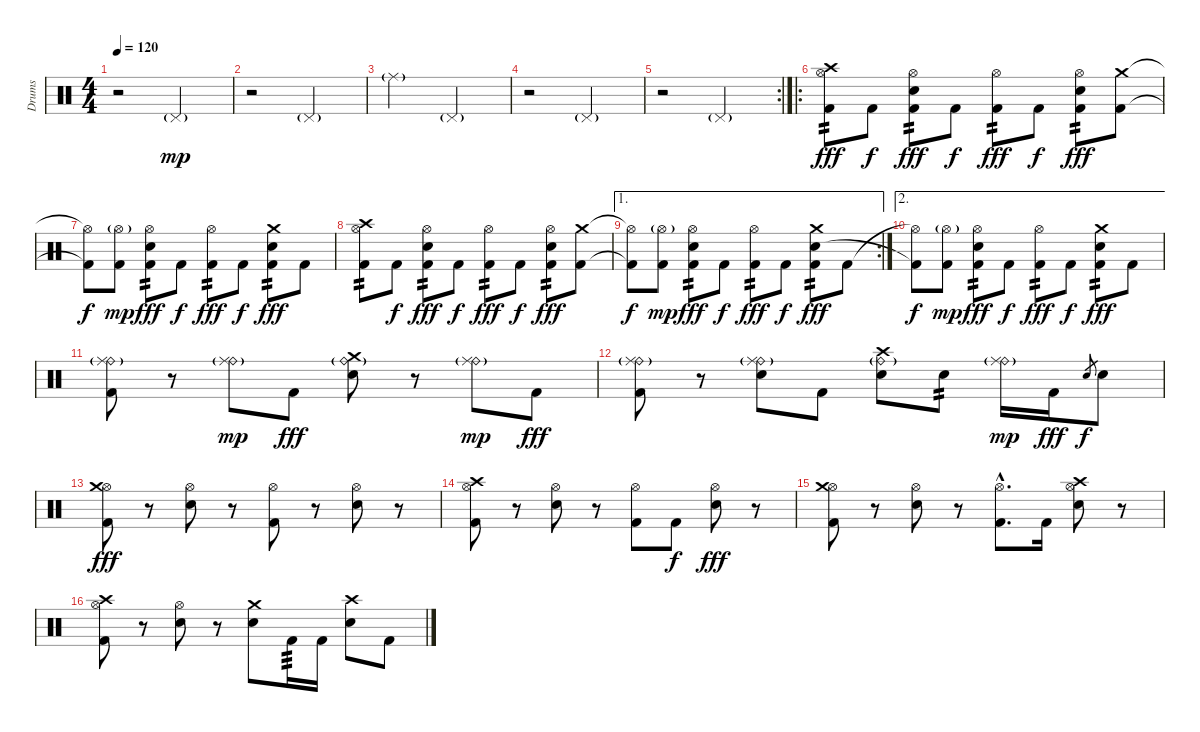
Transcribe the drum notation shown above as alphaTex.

\track ("Drums" "Drums") {instrument percussion}
\staff {score}
\articulation defaults
\ts (4 4)
\tempo 120
\clef neutral
\ks c
r.2{dy mp} "Pedal Hi-Hat (hit)"{g}.2 |
r.2{volume 13} "Pedal Hi-Hat (hit)"{g}.2 |
"Ride (middle)"{g}.2 "Pedal Hi-Hat (hit)"{g}.2 |
r.2 "Pedal Hi-Hat (hit)"{g}.2 |
\rc 2
r.2 "Pedal Hi-Hat (hit)"{g}.2 |
\ro
("Hi-Hat (open)" "Crash high (hit)" "Kick (hit) 2").8{tp 2 dy fff} "Kick (hit) 2".8{dy f} ("Hi-Hat (open)" "Electric Snare (hit)" "Kick (hit) 2").8{tp 2 dy fff} "Kick (hit) 2".8{dy f} ("Hi-Hat (open)" "Kick (hit) 2").8{tp 2 dy fff} "Kick (hit) 2".8{dy f} ("Hi-Hat (open)" "Electric Snare (hit)" "Kick (hit) 2").8{tp 2 dy fff} ("Crash medium (hit)" "Kick (hit) 2").8 |
("Hi-Hat (open)"{t} "Kick (hit) 2"{t}).8{dy f} ("Hi-Hat (open)"{g} "Kick (hit) 2").8{dy mp} ("Hi-Hat (open)" "Electric Snare (hit)" "Kick (hit) 2").8{tp 2 dy fff} "Kick (hit) 2".8{dy f} ("Hi-Hat (open)" "Kick (hit) 2").8{tp 2 dy fff} "Kick (hit) 2".8{dy f} ("Crash medium (hit)" "Electric Snare (hit)" "Kick (hit) 2").8{tp 2 dy fff} "Kick (hit) 2".8 |
("Hi-Hat (open)" "Crash high (hit)" "Kick (hit) 2").8{tp 2} "Kick (hit) 2".8{dy f} ("Hi-Hat (open)" "Electric Snare (hit)" "Kick (hit) 2").8{tp 2 dy fff} "Kick (hit) 2".8{dy f} ("Hi-Hat (open)" "Kick (hit) 2").8{tp 2 dy fff} "Kick (hit) 2".8{dy f} ("Hi-Hat (open)" "Electric Snare (hit)" "Kick (hit) 2").8{tp 2 dy fff} ("Crash medium (hit)" "Kick (hit) 2").8 |
\ae 1
\rc 2
("Hi-Hat (open)"{t} "Kick (hit) 2"{t}).8{dy f} ("Hi-Hat (open)"{g} "Kick (hit) 2").8{dy mp} ("Hi-Hat (open)" "Electric Snare (hit)" "Kick (hit) 2").8{tp 2 dy fff} "Kick (hit) 2".8{dy f} ("Hi-Hat (open)" "Kick (hit) 2").8{tp 2 dy fff} "Kick (hit) 2".8{dy f} ("Crash medium (hit)" "Electric Snare (hit)" "Kick (hit) 2").8{tp 2 dy fff} "Kick (hit) 2".8 |
\ae 2
("Hi-Hat (open)"{t} "Kick (hit) 2"{t}).8{dy f} ("Hi-Hat (open)"{g} "Kick (hit) 2").8{dy mp} ("Hi-Hat (open)" "Electric Snare (hit)" "Kick (hit) 2").8{tp 2 dy fff} "Kick (hit) 2".8{dy f} ("Hi-Hat (open)" "Kick (hit) 2").8{tp 2 dy fff} "Kick (hit) 2".8{dy f} ("Crash medium (hit)" "Electric Snare (hit)" "Kick (hit) 2").8{tp 2 dy fff} "Kick (hit) 2".8 |
("Ride (bell)"{g} "Ride (middle)" "Kick (hit) 2").8 r.8 ("Ride (bell)"{g} "Ride (middle)").8{dy mp} "Kick (hit) 2".8{dy fff} ("Ride (bell)"{g} "Crash medium (hit)" "Electric Snare (hit)").8 r.8 ("Ride (bell)"{g} "Ride (middle)").8{dy mp} "Kick (hit) 2".8{dy fff} |
("Ride (bell)"{g} "Ride (middle)" "Kick (hit) 2").8 r.8 ("Ride (bell)"{g} "Ride (middle)" "Electric Snare (hit)").8 "Kick (hit) 2".8 ("Ride (bell)"{g} "Crash high (hit)" "Electric Snare (hit)").8 "Electric Snare (hit)".8{tp 2} ("Ride (bell)"{g} "Ride (middle)").16{dy mp} "Kick (hit) 2".16{dy fff} "Electric Snare (hit)".8{gr dy f} "Electric Snare (hit)".8 |
("Hi-Hat (open)" "Crash medium (hit)" "Kick (hit) 2").8{dy fff} r.8 ("Hi-Hat (open)" "Electric Snare (hit)").8 r.8 ("Hi-Hat (open)" "Kick (hit) 2").8 r.8 ("Hi-Hat (open)" "Electric Snare (hit)").8 r.8 |
("Hi-Hat (open)" "Crash high (hit)" "Kick (hit) 2").8 r.8 ("Hi-Hat (open)" "Electric Snare (hit)").8 r.8 ("Hi-Hat (open)" "Kick (hit) 2").8 "Kick (hit) 2".8{dy f} ("Hi-Hat (open)" "Electric Snare (hit)").8{dy fff} r.8 |
("Hi-Hat (open)" "Crash medium (hit)" "Kick (hit) 2").8 r.8 ("Hi-Hat (open)" "Electric Snare (hit)").8 r.8 ("Hi-Hat (open)"{hac} "Kick (hit) 2"{hac}).8{d} "Kick (hit) 2".16 ("Hi-Hat (open)" "Crash high (hit)" "Electric Snare (hit)").8 r.8 |
("Hi-Hat (open)" "Crash high (hit)" "Kick (hit) 2").8 r.8 ("Hi-Hat (open)" "Electric Snare (hit)").8 r.8 ("Crash medium (hit)" "Electric Snare (hit)").8 "Kick (hit) 2".16{tp 3} "Kick (hit) 2".16 ("Crash high (hit)" "Electric Snare (hit)").8 "Kick (hit) 2".8
